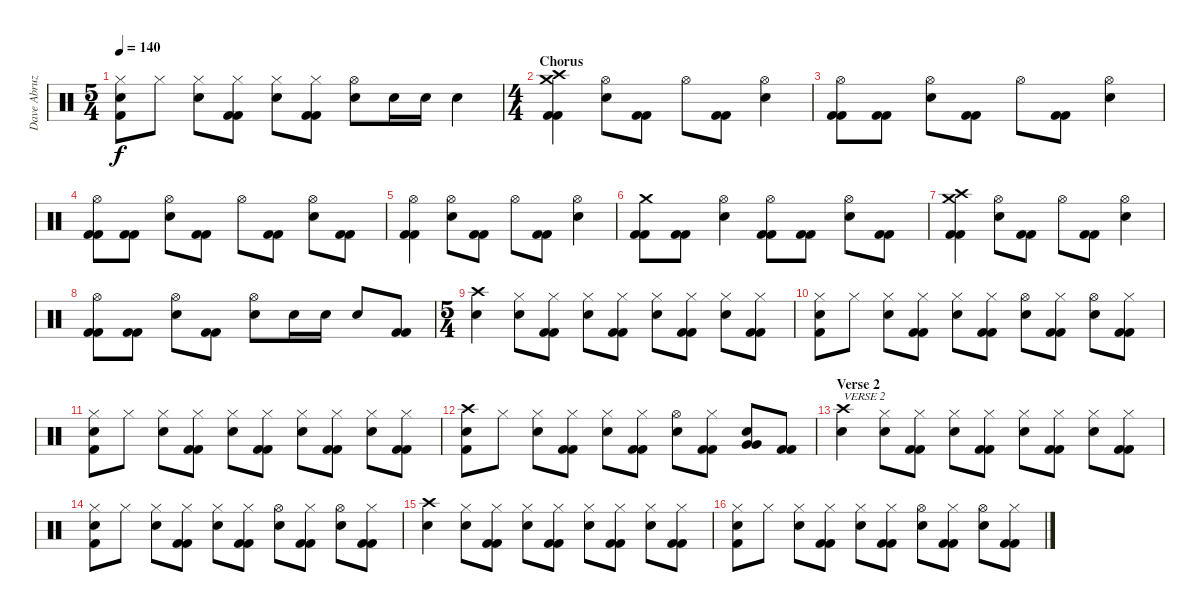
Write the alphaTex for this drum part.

\track ("Dave Abruzzese" "Dave Abruz") {instrument percussion}
\staff {score}
\articulation defaults
\ts (5 4)
\tempo 140
\clef neutral
\ks c
("Kick (hit) 2" "Electric Snare (hit)" "Hi-Hat (closed)").8{dy f} "Hi-Hat (closed)".8 ("Electric Snare (hit)" "Hi-Hat (closed)").8 ("Kick (hit) 2" "Kick (hit) 2" "Hi-Hat (closed)").8 ("Electric Snare (hit)" "Hi-Hat (closed)").8 ("Kick (hit) 2" "Kick (hit) 2" "Hi-Hat (closed)").8 ("Electric Snare (hit)" "Hi-Hat (open)").8 "Electric Snare (hit)".16 "Electric Snare (hit)".16 "Electric Snare (hit)".4 |
\ts (4 4)
\section ("" "Chorus")
("Crash medium (hit)" "Kick (hit) 2" "Kick (hit) 2" "Crash high (hit)").4 ("Electric Snare (hit)" "Hi-Hat (open)").8 ("Kick (hit) 2" "Kick (hit) 2").8 "Hi-Hat (open)".8 ("Kick (hit) 2" "Kick (hit) 2").8 ("Electric Snare (hit)" "Hi-Hat (open)").4 |
("Kick (hit) 2" "Kick (hit) 2" "Hi-Hat (open)").8 ("Kick (hit) 2" "Kick (hit) 2").8 ("Electric Snare (hit)" "Hi-Hat (open)").8 ("Kick (hit) 2" "Kick (hit) 2").8 "Hi-Hat (open)".8 ("Kick (hit) 2" "Kick (hit) 2").8 ("Electric Snare (hit)" "Hi-Hat (open)").4 |
("Kick (hit) 2" "Kick (hit) 2" "Hi-Hat (open)").8 ("Kick (hit) 2" "Kick (hit) 2").8 ("Electric Snare (hit)" "Hi-Hat (open)").8 ("Kick (hit) 2" "Kick (hit) 2").8 "Hi-Hat (open)".8 ("Kick (hit) 2" "Kick (hit) 2").8 ("Electric Snare (hit)" "Hi-Hat (open)").8 ("Kick (hit) 2" "Kick (hit) 2").8 |
("Kick (hit) 2" "Kick (hit) 2" "Hi-Hat (open)").4 ("Electric Snare (hit)" "Hi-Hat (open)").8 ("Kick (hit) 2" "Kick (hit) 2").8 "Hi-Hat (open)".8 ("Kick (hit) 2" "Kick (hit) 2").8 ("Electric Snare (hit)" "Hi-Hat (open)").4 |
("Kick (hit) 2" "Kick (hit) 2" "Crash medium (hit)").8 ("Kick (hit) 2" "Kick (hit) 2").8 ("Electric Snare (hit)" "Hi-Hat (open)").4 ("Kick (hit) 2" "Kick (hit) 2" "Hi-Hat (open)").8 ("Kick (hit) 2" "Kick (hit) 2").8 ("Electric Snare (hit)" "Hi-Hat (open)").8 ("Kick (hit) 2" "Kick (hit) 2").8 |
("Crash medium (hit)" "Kick (hit) 2" "Kick (hit) 2" "Crash high (hit)").4 ("Electric Snare (hit)" "Hi-Hat (open)").8 ("Kick (hit) 2" "Kick (hit) 2").8 "Hi-Hat (open)".8 ("Kick (hit) 2" "Kick (hit) 2").8 ("Electric Snare (hit)" "Hi-Hat (open)").4 |
("Kick (hit) 2" "Kick (hit) 2" "Hi-Hat (open)").8 ("Kick (hit) 2" "Kick (hit) 2").8 ("Electric Snare (hit)" "Hi-Hat (open)").8 ("Kick (hit) 2" "Kick (hit) 2").8 ("Electric Snare (hit)" "Hi-Hat (open)").8 "Electric Snare (hit)".16 "Electric Snare (hit)".16 "Electric Snare (hit)".8 ("Kick (hit) 2" "Kick (hit) 2").8 |
\ts (5 4)
\section ("" "")
("Electric Snare (hit)" "Crash high (hit)").4 ("Electric Snare (hit)" "Hi-Hat (closed)").8 ("Kick (hit) 2" "Kick (hit) 2" "Hi-Hat (closed)").8 ("Electric Snare (hit)" "Hi-Hat (closed)").8 ("Kick (hit) 2" "Kick (hit) 2" "Hi-Hat (closed)").8 ("Electric Snare (hit)" "Hi-Hat (closed)").8 ("Kick (hit) 2" "Kick (hit) 2" "Hi-Hat (closed)").8 ("Electric Snare (hit)" "Hi-Hat (closed)").8 ("Kick (hit) 2" "Kick (hit) 2" "Hi-Hat (closed)").8 |
("Kick (hit) 2" "Electric Snare (hit)" "Hi-Hat (closed)").8 "Hi-Hat (closed)".8 ("Electric Snare (hit)" "Hi-Hat (closed)").8 ("Kick (hit) 2" "Kick (hit) 2" "Hi-Hat (closed)").8 ("Electric Snare (hit)" "Hi-Hat (closed)").8 ("Kick (hit) 2" "Kick (hit) 2" "Hi-Hat (closed)").8 ("Electric Snare (hit)" "Hi-Hat (open)").8 ("Kick (hit) 2" "Kick (hit) 2" "Hi-Hat (closed)").8 ("Electric Snare (hit)" "Hi-Hat (open)").8 ("Kick (hit) 2" "Kick (hit) 2" "Hi-Hat (closed)").8 |
("Kick (hit) 2" "Electric Snare (hit)" "Hi-Hat (closed)").8 "Hi-Hat (closed)".8 ("Electric Snare (hit)" "Hi-Hat (closed)").8 ("Kick (hit) 2" "Kick (hit) 2" "Hi-Hat (closed)").8 ("Electric Snare (hit)" "Hi-Hat (closed)").8 ("Kick (hit) 2" "Kick (hit) 2" "Hi-Hat (closed)").8 ("Electric Snare (hit)" "Hi-Hat (closed)").8 ("Kick (hit) 2" "Kick (hit) 2" "Hi-Hat (closed)").8 ("Electric Snare (hit)" "Hi-Hat (closed)").8 ("Kick (hit) 2" "Kick (hit) 2" "Hi-Hat (closed)").8 |
("Kick (hit) 2" "Electric Snare (hit)" "Crash high (hit)").8 "Hi-Hat (closed)".8 ("Electric Snare (hit)" "Hi-Hat (closed)").8 ("Kick (hit) 2" "Kick (hit) 2" "Hi-Hat (closed)").8 ("Electric Snare (hit)" "Hi-Hat (closed)").8 ("Kick (hit) 2" "Kick (hit) 2" "Hi-Hat (closed)").8 ("Electric Snare (hit)" "Hi-Hat (open)").8 ("Kick (hit) 2" "Kick (hit) 2" "Hi-Hat (closed)").8 ("Electric Snare (hit)" "Very Low Tom (hit)" "Very Low Tom (hit)").8 ("Kick (hit) 2" "Kick (hit) 2").8 |
\section ("" "Verse 2")
("Electric Snare (hit)" "Crash high (hit)").4{txt "VERSE 2"} ("Electric Snare (hit)" "Hi-Hat (closed)").8 ("Kick (hit) 2" "Kick (hit) 2" "Hi-Hat (closed)").8 ("Electric Snare (hit)" "Hi-Hat (closed)").8 ("Kick (hit) 2" "Kick (hit) 2" "Hi-Hat (closed)").8 ("Electric Snare (hit)" "Hi-Hat (closed)").8 ("Kick (hit) 2" "Kick (hit) 2" "Hi-Hat (closed)").8 ("Electric Snare (hit)" "Hi-Hat (closed)").8 ("Kick (hit) 2" "Kick (hit) 2" "Hi-Hat (closed)").8 |
("Kick (hit) 2" "Electric Snare (hit)" "Hi-Hat (closed)").8 "Hi-Hat (closed)".8 ("Electric Snare (hit)" "Hi-Hat (closed)").8 ("Kick (hit) 2" "Kick (hit) 2" "Hi-Hat (closed)").8 ("Electric Snare (hit)" "Hi-Hat (closed)").8 ("Kick (hit) 2" "Kick (hit) 2" "Hi-Hat (closed)").8 ("Electric Snare (hit)" "Hi-Hat (open)").8 ("Kick (hit) 2" "Kick (hit) 2" "Hi-Hat (closed)").8 ("Electric Snare (hit)" "Hi-Hat (open)").8 ("Kick (hit) 2" "Kick (hit) 2" "Hi-Hat (closed)").8 |
("Electric Snare (hit)" "Crash high (hit)").4 ("Electric Snare (hit)" "Hi-Hat (closed)").8 ("Kick (hit) 2" "Kick (hit) 2" "Hi-Hat (closed)").8 ("Electric Snare (hit)" "Hi-Hat (closed)").8 ("Kick (hit) 2" "Kick (hit) 2" "Hi-Hat (closed)").8 ("Electric Snare (hit)" "Hi-Hat (closed)").8 ("Kick (hit) 2" "Kick (hit) 2" "Hi-Hat (closed)").8 ("Electric Snare (hit)" "Hi-Hat (closed)").8 ("Kick (hit) 2" "Kick (hit) 2" "Hi-Hat (closed)").8 |
("Kick (hit) 2" "Electric Snare (hit)" "Hi-Hat (closed)").8 "Hi-Hat (closed)".8 ("Electric Snare (hit)" "Hi-Hat (closed)").8 ("Kick (hit) 2" "Kick (hit) 2" "Hi-Hat (closed)").8 ("Electric Snare (hit)" "Hi-Hat (closed)").8 ("Kick (hit) 2" "Kick (hit) 2" "Hi-Hat (closed)").8 ("Electric Snare (hit)" "Hi-Hat (open)").8 ("Kick (hit) 2" "Kick (hit) 2" "Hi-Hat (closed)").8 ("Electric Snare (hit)" "Hi-Hat (open)").8 ("Kick (hit) 2" "Kick (hit) 2" "Hi-Hat (closed)").8
